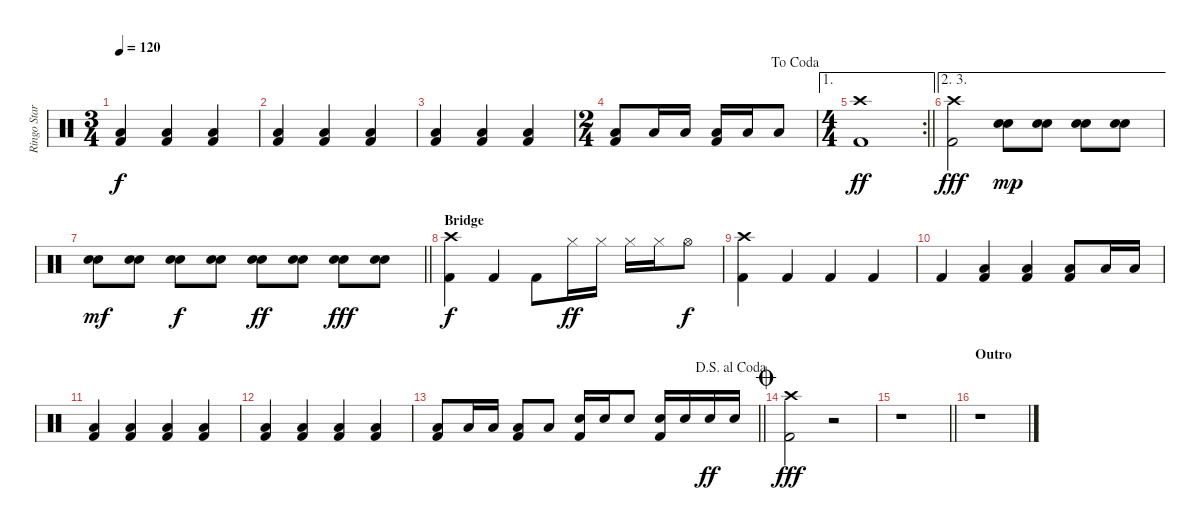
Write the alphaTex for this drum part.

\track ("Ringo Star's drums" "Ringo Star") {instrument percussion}
\staff {score}
\articulation defaults
\ts (3 4)
\tempo 120
\clef neutral
\ks c
("Low Floor Tom (hit)" "Kick (hit) 2").4{dy f} ("Low Floor Tom (hit)" "Kick (hit) 2").4 ("Low Floor Tom (hit)" "Kick (hit) 2").4 |
("Low Floor Tom (hit)" "Kick (hit) 2").4 ("Low Floor Tom (hit)" "Kick (hit) 2").4 ("Low Floor Tom (hit)" "Kick (hit) 2").4 |
("Low Floor Tom (hit)" "Kick (hit) 2").4 ("Low Floor Tom (hit)" "Kick (hit) 2").4 ("Low Floor Tom (hit)" "Kick (hit) 2").4 |
\ts (2 4)
\jump dacoda
("Low Floor Tom (hit)" "Kick (hit) 2").8 "Low Floor Tom (hit)".16 "Low Floor Tom (hit)".16 ("Low Floor Tom (hit)" "Kick (hit) 2").16 "Low Floor Tom (hit)".16 "Low Floor Tom (hit)".8 |
\ae 1
\rc 2
\ts (4 4)
\barLineRight lightlight
("Crash high (hit)" "Kick (hit) 2").1{dy ff} |
\ae (2 3)
("Crash high (hit)" "Kick (hit) 2").2{dy fff volume 0} ("Snare (hit) 2" "Snare (hit) 2").8{dy mp volume 9} ("Snare (hit) 2" "Snare (hit) 2").8 ("Snare (hit) 2" "Snare (hit) 2").8 ("Snare (hit) 2" "Snare (hit) 2").8 |
\barLineRight lightlight
("Snare (hit) 2" "Snare (hit) 2").8{dy mf} ("Snare (hit) 2" "Snare (hit) 2").8 ("Snare (hit) 2" "Snare (hit) 2").8{dy f} ("Snare (hit) 2" "Snare (hit) 2").8 ("Snare (hit) 2" "Snare (hit) 2").8{dy ff} ("Snare (hit) 2" "Snare (hit) 2").8 ("Snare (hit) 2" "Snare (hit) 2").8{dy fff} ("Snare (hit) 2" "Snare (hit) 2").8 |
\section ("" "Bridge")
("Crash high (hit)" "Kick (hit) 2").4{dy f} "Kick (hit) 2".4 "Kick (hit) 2".8 "Hi-Hat (closed)".16{dy ff} "Hi-Hat (closed)".16 "Hi-Hat (closed)".16 "Hi-Hat (closed)".16 "Hi-Hat (open)".8{dy f} |
("Crash high (hit)" "Kick (hit) 2").4 "Kick (hit) 2".4 "Kick (hit) 2".4 "Kick (hit) 2".4 |
"Kick (hit) 2".4 ("Low Floor Tom (hit)" "Kick (hit) 2").4 ("Low Floor Tom (hit)" "Kick (hit) 2").4 ("Low Floor Tom (hit)" "Kick (hit) 2").8 "Low Floor Tom (hit)".16 "Low Floor Tom (hit)".16 |
("Low Floor Tom (hit)" "Kick (hit) 2").4 ("Low Floor Tom (hit)" "Kick (hit) 2").4 ("Low Floor Tom (hit)" "Kick (hit) 2").4 ("Low Floor Tom (hit)" "Kick (hit) 2").4 |
("Low Floor Tom (hit)" "Kick (hit) 2").4 ("Low Floor Tom (hit)" "Kick (hit) 2").4 ("Low Floor Tom (hit)" "Kick (hit) 2").4 ("Low Floor Tom (hit)" "Kick (hit) 2").4 |
\jump dalsegnoalcoda
\barLineRight lightlight
("Low Floor Tom (hit)" "Kick (hit) 2").8 "Low Floor Tom (hit)".16 "Low Floor Tom (hit)".16 ("Low Floor Tom (hit)" "Kick (hit) 2").8 "Low Floor Tom (hit)".8 ("Snare (hit) 2" "Kick (hit) 2").16 "Snare (hit) 2".16 "Snare (hit) 2".8 ("Snare (hit) 2" "Kick (hit) 2").16 "Snare (hit) 2".16 "Snare (hit) 2".16{dy ff} "Snare (hit) 2".16 |
\jump coda
("Crash high (hit)" "Kick (hit) 2").2{dy fff} r.2 |
\barLineRight lightlight
r.1 |
\section ("" "Outro")
r.1
